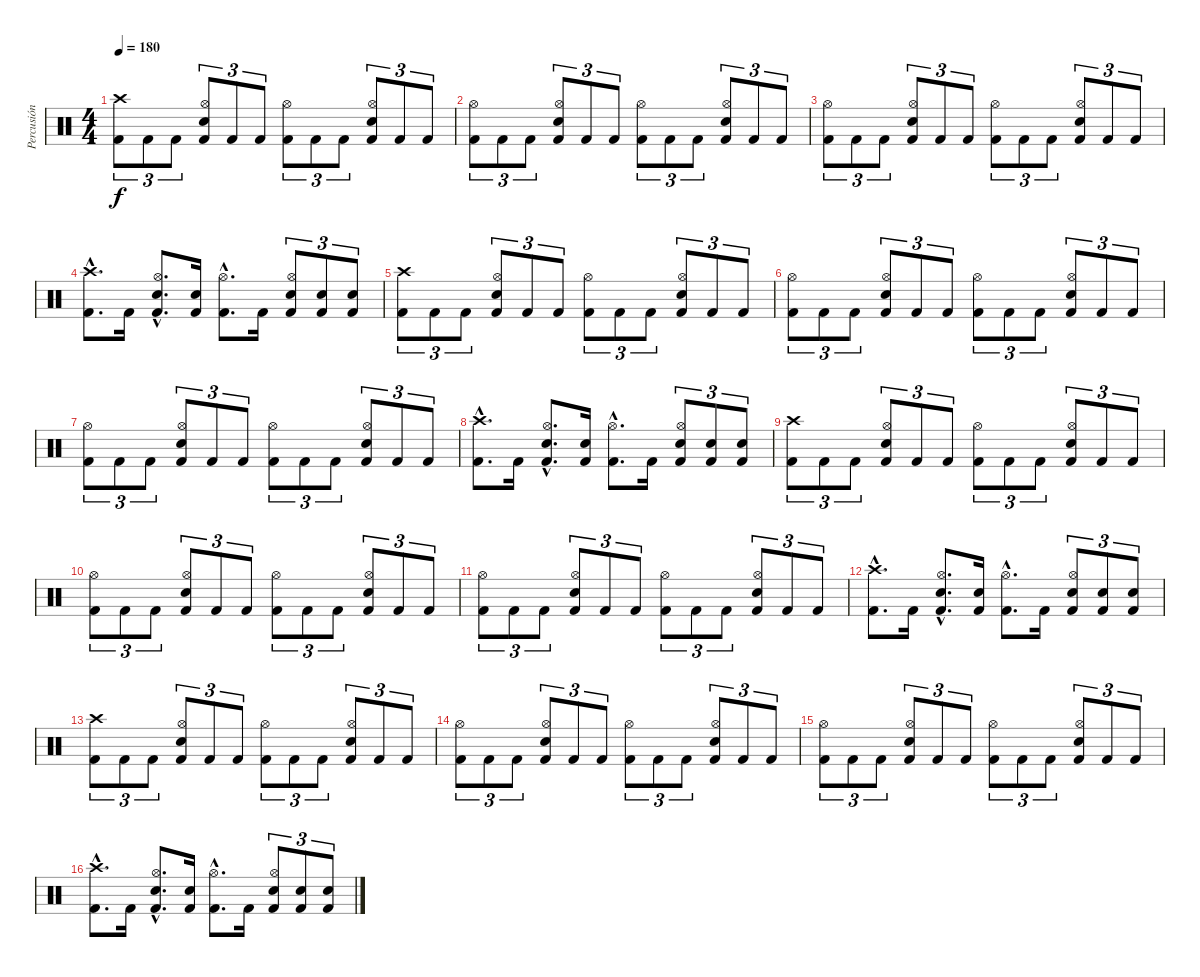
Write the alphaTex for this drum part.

\track ("Percusión" "Percusión") {instrument percussion}
\staff {score}
\articulation defaults
\ts (4 4)
\tempo 180
\clef neutral
\ks c
("Crash high (hit)" "Kick (hit) 2").8{tu (3 2) dy f} "Kick (hit) 2".8{tu (3 2)} "Kick (hit) 2".8{tu (3 2)} ("Hi-Hat (open)" "Snare (hit) 2" "Kick (hit) 2").8{tu (3 2)} "Kick (hit) 2".8{tu (3 2)} "Kick (hit) 2".8{tu (3 2)} ("Hi-Hat (open)" "Kick (hit) 2").8{tu (3 2)} "Kick (hit) 2".8{tu (3 2)} "Kick (hit) 2".8{tu (3 2)} ("Hi-Hat (open)" "Snare (hit) 2" "Kick (hit) 2").8{tu (3 2)} "Kick (hit) 2".8{tu (3 2)} "Kick (hit) 2".8{tu (3 2)} |
("Hi-Hat (open)" "Kick (hit) 2").8{tu (3 2)} "Kick (hit) 2".8{tu (3 2)} "Kick (hit) 2".8{tu (3 2)} ("Hi-Hat (open)" "Snare (hit) 2" "Kick (hit) 2").8{tu (3 2)} "Kick (hit) 2".8{tu (3 2)} "Kick (hit) 2".8{tu (3 2)} ("Hi-Hat (open)" "Kick (hit) 2").8{tu (3 2)} "Kick (hit) 2".8{tu (3 2)} "Kick (hit) 2".8{tu (3 2)} ("Hi-Hat (open)" "Snare (hit) 2" "Kick (hit) 2").8{tu (3 2)} "Kick (hit) 2".8{tu (3 2)} "Kick (hit) 2".8{tu (3 2)} |
("Hi-Hat (open)" "Kick (hit) 2").8{tu (3 2)} "Kick (hit) 2".8{tu (3 2)} "Kick (hit) 2".8{tu (3 2)} ("Hi-Hat (open)" "Snare (hit) 2" "Kick (hit) 2").8{tu (3 2)} "Kick (hit) 2".8{tu (3 2)} "Kick (hit) 2".8{tu (3 2)} ("Hi-Hat (open)" "Kick (hit) 2").8{tu (3 2)} "Kick (hit) 2".8{tu (3 2)} "Kick (hit) 2".8{tu (3 2)} ("Hi-Hat (open)" "Snare (hit) 2" "Kick (hit) 2").8{tu (3 2)} "Kick (hit) 2".8{tu (3 2)} "Kick (hit) 2".8{tu (3 2)} |
("Crash high (hit)"{hac} "Kick (hit) 2"{hac}).8{d} "Kick (hit) 2".16 ("Hi-Hat (open)"{hac} "Snare (hit) 2"{hac} "Kick (hit) 2"{hac}).8{d} ("Snare (hit) 2" "Kick (hit) 2").16 ("Hi-Hat (open)"{hac} "Kick (hit) 2"{hac}).8{d} "Kick (hit) 2".16 ("Hi-Hat (open)" "Snare (hit) 2" "Kick (hit) 2").8{tu (3 2)} ("Snare (hit) 2" "Kick (hit) 2").8{tu (3 2)} ("Snare (hit) 2" "Kick (hit) 2").8{tu (3 2)} |
("Crash high (hit)" "Kick (hit) 2").8{tu (3 2)} "Kick (hit) 2".8{tu (3 2)} "Kick (hit) 2".8{tu (3 2)} ("Hi-Hat (open)" "Snare (hit) 2" "Kick (hit) 2").8{tu (3 2)} "Kick (hit) 2".8{tu (3 2)} "Kick (hit) 2".8{tu (3 2)} ("Hi-Hat (open)" "Kick (hit) 2").8{tu (3 2)} "Kick (hit) 2".8{tu (3 2)} "Kick (hit) 2".8{tu (3 2)} ("Hi-Hat (open)" "Snare (hit) 2" "Kick (hit) 2").8{tu (3 2)} "Kick (hit) 2".8{tu (3 2)} "Kick (hit) 2".8{tu (3 2)} |
("Hi-Hat (open)" "Kick (hit) 2").8{tu (3 2)} "Kick (hit) 2".8{tu (3 2)} "Kick (hit) 2".8{tu (3 2)} ("Hi-Hat (open)" "Snare (hit) 2" "Kick (hit) 2").8{tu (3 2)} "Kick (hit) 2".8{tu (3 2)} "Kick (hit) 2".8{tu (3 2)} ("Hi-Hat (open)" "Kick (hit) 2").8{tu (3 2)} "Kick (hit) 2".8{tu (3 2)} "Kick (hit) 2".8{tu (3 2)} ("Hi-Hat (open)" "Snare (hit) 2" "Kick (hit) 2").8{tu (3 2)} "Kick (hit) 2".8{tu (3 2)} "Kick (hit) 2".8{tu (3 2)} |
("Hi-Hat (open)" "Kick (hit) 2").8{tu (3 2)} "Kick (hit) 2".8{tu (3 2)} "Kick (hit) 2".8{tu (3 2)} ("Hi-Hat (open)" "Snare (hit) 2" "Kick (hit) 2").8{tu (3 2)} "Kick (hit) 2".8{tu (3 2)} "Kick (hit) 2".8{tu (3 2)} ("Hi-Hat (open)" "Kick (hit) 2").8{tu (3 2)} "Kick (hit) 2".8{tu (3 2)} "Kick (hit) 2".8{tu (3 2)} ("Hi-Hat (open)" "Snare (hit) 2" "Kick (hit) 2").8{tu (3 2)} "Kick (hit) 2".8{tu (3 2)} "Kick (hit) 2".8{tu (3 2)} |
("Crash high (hit)"{hac} "Kick (hit) 2"{hac}).8{d} "Kick (hit) 2".16 ("Hi-Hat (open)"{hac} "Snare (hit) 2"{hac} "Kick (hit) 2"{hac}).8{d} ("Snare (hit) 2" "Kick (hit) 2").16 ("Hi-Hat (open)"{hac} "Kick (hit) 2"{hac}).8{d} "Kick (hit) 2".16 ("Hi-Hat (open)" "Snare (hit) 2" "Kick (hit) 2").8{tu (3 2)} ("Snare (hit) 2" "Kick (hit) 2").8{tu (3 2)} ("Snare (hit) 2" "Kick (hit) 2").8{tu (3 2)} |
("Crash high (hit)" "Kick (hit) 2").8{tu (3 2)} "Kick (hit) 2".8{tu (3 2)} "Kick (hit) 2".8{tu (3 2)} ("Hi-Hat (open)" "Snare (hit) 2" "Kick (hit) 2").8{tu (3 2)} "Kick (hit) 2".8{tu (3 2)} "Kick (hit) 2".8{tu (3 2)} ("Hi-Hat (open)" "Kick (hit) 2").8{tu (3 2)} "Kick (hit) 2".8{tu (3 2)} "Kick (hit) 2".8{tu (3 2)} ("Hi-Hat (open)" "Snare (hit) 2" "Kick (hit) 2").8{tu (3 2)} "Kick (hit) 2".8{tu (3 2)} "Kick (hit) 2".8{tu (3 2)} |
("Hi-Hat (open)" "Kick (hit) 2").8{tu (3 2)} "Kick (hit) 2".8{tu (3 2)} "Kick (hit) 2".8{tu (3 2)} ("Hi-Hat (open)" "Snare (hit) 2" "Kick (hit) 2").8{tu (3 2)} "Kick (hit) 2".8{tu (3 2)} "Kick (hit) 2".8{tu (3 2)} ("Hi-Hat (open)" "Kick (hit) 2").8{tu (3 2)} "Kick (hit) 2".8{tu (3 2)} "Kick (hit) 2".8{tu (3 2)} ("Hi-Hat (open)" "Snare (hit) 2" "Kick (hit) 2").8{tu (3 2)} "Kick (hit) 2".8{tu (3 2)} "Kick (hit) 2".8{tu (3 2)} |
("Hi-Hat (open)" "Kick (hit) 2").8{tu (3 2)} "Kick (hit) 2".8{tu (3 2)} "Kick (hit) 2".8{tu (3 2)} ("Hi-Hat (open)" "Snare (hit) 2" "Kick (hit) 2").8{tu (3 2)} "Kick (hit) 2".8{tu (3 2)} "Kick (hit) 2".8{tu (3 2)} ("Hi-Hat (open)" "Kick (hit) 2").8{tu (3 2)} "Kick (hit) 2".8{tu (3 2)} "Kick (hit) 2".8{tu (3 2)} ("Hi-Hat (open)" "Snare (hit) 2" "Kick (hit) 2").8{tu (3 2)} "Kick (hit) 2".8{tu (3 2)} "Kick (hit) 2".8{tu (3 2)} |
("Crash high (hit)"{hac} "Kick (hit) 2"{hac}).8{d} "Kick (hit) 2".16 ("Hi-Hat (open)"{hac} "Snare (hit) 2"{hac} "Kick (hit) 2"{hac}).8{d} ("Snare (hit) 2" "Kick (hit) 2").16 ("Hi-Hat (open)"{hac} "Kick (hit) 2"{hac}).8{d} "Kick (hit) 2".16 ("Hi-Hat (open)" "Snare (hit) 2" "Kick (hit) 2").8{tu (3 2)} ("Snare (hit) 2" "Kick (hit) 2").8{tu (3 2)} ("Snare (hit) 2" "Kick (hit) 2").8{tu (3 2)} |
("Crash high (hit)" "Kick (hit) 2").8{tu (3 2)} "Kick (hit) 2".8{tu (3 2)} "Kick (hit) 2".8{tu (3 2)} ("Hi-Hat (open)" "Snare (hit) 2" "Kick (hit) 2").8{tu (3 2)} "Kick (hit) 2".8{tu (3 2)} "Kick (hit) 2".8{tu (3 2)} ("Hi-Hat (open)" "Kick (hit) 2").8{tu (3 2)} "Kick (hit) 2".8{tu (3 2)} "Kick (hit) 2".8{tu (3 2)} ("Hi-Hat (open)" "Snare (hit) 2" "Kick (hit) 2").8{tu (3 2)} "Kick (hit) 2".8{tu (3 2)} "Kick (hit) 2".8{tu (3 2)} |
("Hi-Hat (open)" "Kick (hit) 2").8{tu (3 2)} "Kick (hit) 2".8{tu (3 2)} "Kick (hit) 2".8{tu (3 2)} ("Hi-Hat (open)" "Snare (hit) 2" "Kick (hit) 2").8{tu (3 2)} "Kick (hit) 2".8{tu (3 2)} "Kick (hit) 2".8{tu (3 2)} ("Hi-Hat (open)" "Kick (hit) 2").8{tu (3 2)} "Kick (hit) 2".8{tu (3 2)} "Kick (hit) 2".8{tu (3 2)} ("Hi-Hat (open)" "Snare (hit) 2" "Kick (hit) 2").8{tu (3 2)} "Kick (hit) 2".8{tu (3 2)} "Kick (hit) 2".8{tu (3 2)} |
("Hi-Hat (open)" "Kick (hit) 2").8{tu (3 2)} "Kick (hit) 2".8{tu (3 2)} "Kick (hit) 2".8{tu (3 2)} ("Hi-Hat (open)" "Snare (hit) 2" "Kick (hit) 2").8{tu (3 2)} "Kick (hit) 2".8{tu (3 2)} "Kick (hit) 2".8{tu (3 2)} ("Hi-Hat (open)" "Kick (hit) 2").8{tu (3 2)} "Kick (hit) 2".8{tu (3 2)} "Kick (hit) 2".8{tu (3 2)} ("Hi-Hat (open)" "Snare (hit) 2" "Kick (hit) 2").8{tu (3 2)} "Kick (hit) 2".8{tu (3 2)} "Kick (hit) 2".8{tu (3 2)} |
("Crash high (hit)"{hac} "Kick (hit) 2"{hac}).8{d} "Kick (hit) 2".16 ("Hi-Hat (open)"{hac} "Snare (hit) 2"{hac} "Kick (hit) 2"{hac}).8{d} ("Snare (hit) 2" "Kick (hit) 2").16 ("Hi-Hat (open)"{hac} "Kick (hit) 2"{hac}).8{d} "Kick (hit) 2".16 ("Hi-Hat (open)" "Snare (hit) 2" "Kick (hit) 2").8{tu (3 2)} ("Snare (hit) 2" "Kick (hit) 2").8{tu (3 2)} ("Snare (hit) 2" "Kick (hit) 2").8{tu (3 2)}
